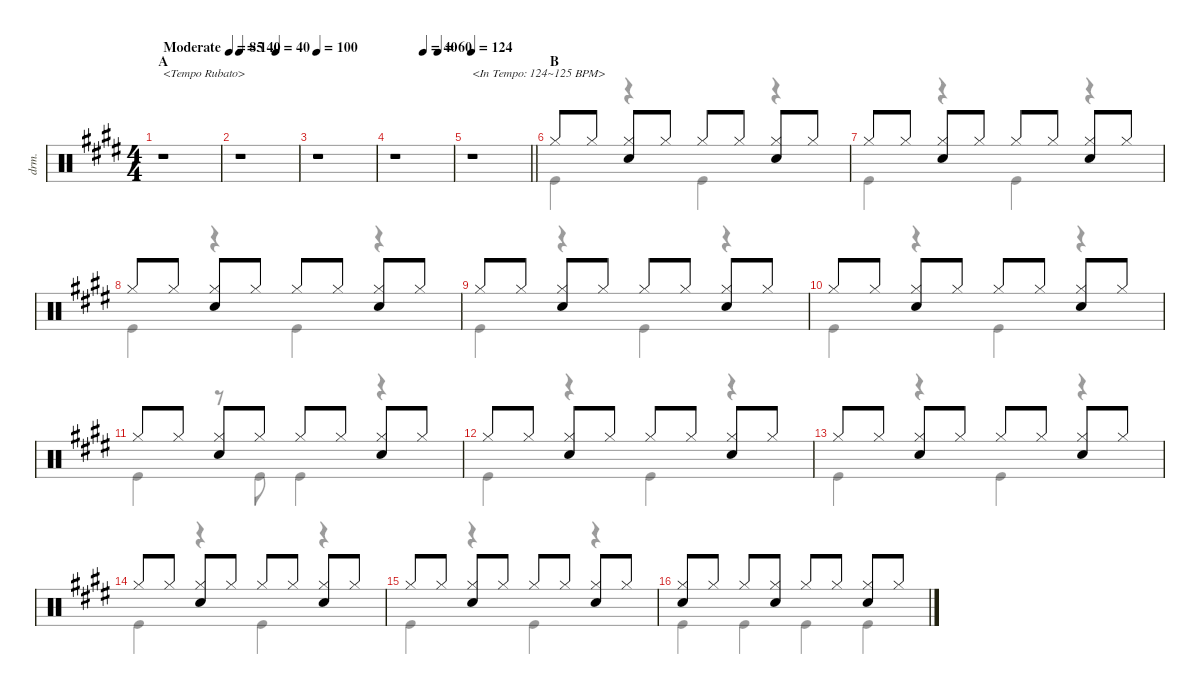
\defaultSystemsLayout 4
\hideDynamics
\bracketExtendMode nobrackets
\track ("Drums" "drm.") {instrument percussion}
\staff {score}
\articulation defaults
\voice
\ts (4 4)
\beaming (8 2 2 2 2)
\section ("" "A")
\tempo (85 "Moderate")
\clef neutral
\ks e
r.1{txt "<Tempo Rubato>" dy f} |
\tempo 140
\tempo (40 0.625)
r.1 |
\tempo 100
r.1 |
\tempo (40 0.5)
\tempo (60 0.75)
r.1 |
\tempo 124
\barLineRight lightlight
r.1{txt "<In Tempo: 124~125 BPM>"} |
\section ("" "B")
"Hi-Hat (closed)"{acc forcenatural}.8 "Hi-Hat (closed)"{acc forcenatural}.8 ("Hi-Hat (closed)"{acc forcenatural} "Snare (hit) 2"{acc forcenatural}).8 "Hi-Hat (closed)"{acc forcenatural}.8 "Hi-Hat (closed)"{acc forcenatural}.8 "Hi-Hat (closed)"{acc forcenatural}.8 ("Hi-Hat (closed)"{acc forcenatural} "Snare (hit) 2"{acc forcenatural}).8 "Hi-Hat (closed)"{acc forcenatural}.8 |
"Hi-Hat (closed)"{acc forcenatural}.8 "Hi-Hat (closed)"{acc forcenatural}.8 ("Hi-Hat (closed)"{acc forcenatural} "Snare (hit) 2"{acc forcenatural}).8 "Hi-Hat (closed)"{acc forcenatural}.8 "Hi-Hat (closed)"{acc forcenatural}.8 "Hi-Hat (closed)"{acc forcenatural}.8 ("Hi-Hat (closed)"{acc forcenatural} "Snare (hit) 2"{acc forcenatural}).8 "Hi-Hat (closed)"{acc forcenatural}.8 |
"Hi-Hat (closed)"{acc forcenatural}.8 "Hi-Hat (closed)"{acc forcenatural}.8 ("Hi-Hat (closed)"{acc forcenatural} "Snare (hit) 2"{acc forcenatural}).8 "Hi-Hat (closed)"{acc forcenatural}.8 "Hi-Hat (closed)"{acc forcenatural}.8 "Hi-Hat (closed)"{acc forcenatural}.8 ("Hi-Hat (closed)"{acc forcenatural} "Snare (hit) 2"{acc forcenatural}).8 "Hi-Hat (closed)"{acc forcenatural}.8 |
"Hi-Hat (closed)"{acc forcenatural}.8 "Hi-Hat (closed)"{acc forcenatural}.8 ("Hi-Hat (closed)"{acc forcenatural} "Snare (hit) 2"{acc forcenatural}).8 "Hi-Hat (closed)"{acc forcenatural}.8 "Hi-Hat (closed)"{acc forcenatural}.8 "Hi-Hat (closed)"{acc forcenatural}.8 ("Hi-Hat (closed)"{acc forcenatural} "Snare (hit) 2"{acc forcenatural}).8 "Hi-Hat (closed)"{acc forcenatural}.8 |
"Hi-Hat (closed)"{acc forcenatural}.8 "Hi-Hat (closed)"{acc forcenatural}.8 ("Hi-Hat (closed)"{acc forcenatural} "Snare (hit) 2"{acc forcenatural}).8 "Hi-Hat (closed)"{acc forcenatural}.8 "Hi-Hat (closed)"{acc forcenatural}.8 "Hi-Hat (closed)"{acc forcenatural}.8 ("Hi-Hat (closed)"{acc forcenatural} "Snare (hit) 2"{acc forcenatural}).8 "Hi-Hat (closed)"{acc forcenatural}.8 |
"Hi-Hat (closed)"{acc forcenatural}.8 "Hi-Hat (closed)"{acc forcenatural}.8 ("Hi-Hat (closed)"{acc forcenatural} "Snare (hit) 2"{acc forcenatural}).8 "Hi-Hat (closed)"{acc forcenatural}.8 "Hi-Hat (closed)"{acc forcenatural}.8 "Hi-Hat (closed)"{acc forcenatural}.8 ("Hi-Hat (closed)"{acc forcenatural} "Snare (hit) 2"{acc forcenatural}).8 "Hi-Hat (closed)"{acc forcenatural}.8 |
"Hi-Hat (closed)"{acc forcenatural}.8 "Hi-Hat (closed)"{acc forcenatural}.8 ("Hi-Hat (closed)"{acc forcenatural} "Snare (hit) 2"{acc forcenatural}).8 "Hi-Hat (closed)"{acc forcenatural}.8 "Hi-Hat (closed)"{acc forcenatural}.8 "Hi-Hat (closed)"{acc forcenatural}.8 ("Hi-Hat (closed)"{acc forcenatural} "Snare (hit) 2"{acc forcenatural}).8 "Hi-Hat (closed)"{acc forcenatural}.8 |
"Hi-Hat (closed)"{acc forcenatural}.8 "Hi-Hat (closed)"{acc forcenatural}.8 ("Hi-Hat (closed)"{acc forcenatural} "Snare (hit) 2"{acc forcenatural}).8 "Hi-Hat (closed)"{acc forcenatural}.8 "Hi-Hat (closed)"{acc forcenatural}.8 "Hi-Hat (closed)"{acc forcenatural}.8 ("Hi-Hat (closed)"{acc forcenatural} "Snare (hit) 2"{acc forcenatural}).8 "Hi-Hat (closed)"{acc forcenatural}.8 |
"Hi-Hat (closed)"{acc forcenatural}.8 "Hi-Hat (closed)"{acc forcenatural}.8 ("Hi-Hat (closed)"{acc forcenatural} "Snare (hit) 2"{acc forcenatural}).8 "Hi-Hat (closed)"{acc forcenatural}.8 "Hi-Hat (closed)"{acc forcenatural}.8 "Hi-Hat (closed)"{acc forcenatural}.8 ("Hi-Hat (closed)"{acc forcenatural} "Snare (hit) 2"{acc forcenatural}).8 "Hi-Hat (closed)"{acc forcenatural}.8 |
"Hi-Hat (closed)"{acc forcenatural}.8 "Hi-Hat (closed)"{acc forcenatural}.8 ("Hi-Hat (closed)"{acc forcenatural} "Snare (hit) 2"{acc forcenatural}).8 "Hi-Hat (closed)"{acc forcenatural}.8 "Hi-Hat (closed)"{acc forcenatural}.8 "Hi-Hat (closed)"{acc forcenatural}.8 ("Hi-Hat (closed)"{acc forcenatural} "Snare (hit) 2"{acc forcenatural}).8 "Hi-Hat (closed)"{acc forcenatural}.8 |
("Hi-Hat (closed)"{acc forcenatural} "Snare (hit) 2"{acc forcenatural}).8 "Hi-Hat (closed)"{acc forcenatural}.8 "Hi-Hat (closed)"{acc forcenatural}.8 ("Hi-Hat (closed)"{acc forcenatural} "Snare (hit) 2"{acc forcenatural}).8 "Hi-Hat (closed)"{acc forcenatural}.8 "Hi-Hat (closed)"{acc forcenatural}.8 ("Hi-Hat (closed)"{acc forcenatural} "Snare (hit) 2"{acc forcenatural}).8 "Hi-Hat (closed)"{acc forcenatural}.8
\voice
\clef neutral
\ottava regular
\simile none
\ks e
r.1{dy fff} |
r.1 |
r.1 |
r.1 |
\barLineRight lightlight
r.1 |
"Kick (hit)"{acc forcenatural}.4 r.4 "Kick (hit)"{acc forcenatural}.4 r.4 |
"Kick (hit)"{acc forcenatural}.4 r.4 "Kick (hit)"{acc forcenatural}.4 r.4 |
"Kick (hit)"{acc forcenatural}.4 r.4 "Kick (hit)"{acc forcenatural}.4 r.4 |
"Kick (hit)"{acc forcenatural}.4 r.4 "Kick (hit)"{acc forcenatural}.4 r.4 |
"Kick (hit)"{acc forcenatural}.4 r.4 "Kick (hit)"{acc forcenatural}.4 r.4 |
"Kick (hit)"{acc forcenatural}.4 r.8 "Kick (hit)"{acc forcenatural}.8 "Kick (hit)"{acc forcenatural}.4 r.4 |
"Kick (hit)"{acc forcenatural}.4 r.4 "Kick (hit)"{acc forcenatural}.4 r.4 |
"Kick (hit)"{acc forcenatural}.4 r.4 "Kick (hit)"{acc forcenatural}.4 r.4 |
"Kick (hit)"{acc forcenatural}.4 r.4 "Kick (hit)"{acc forcenatural}.4 r.4 |
"Kick (hit)"{acc forcenatural}.4 r.4 "Kick (hit)"{acc forcenatural}.4 r.4 |
"Kick (hit)"{acc forcenatural}.4 "Kick (hit)"{acc forcenatural}.4 "Kick (hit)"{acc forcenatural}.4 "Kick (hit)"{acc forcenatural}.4
